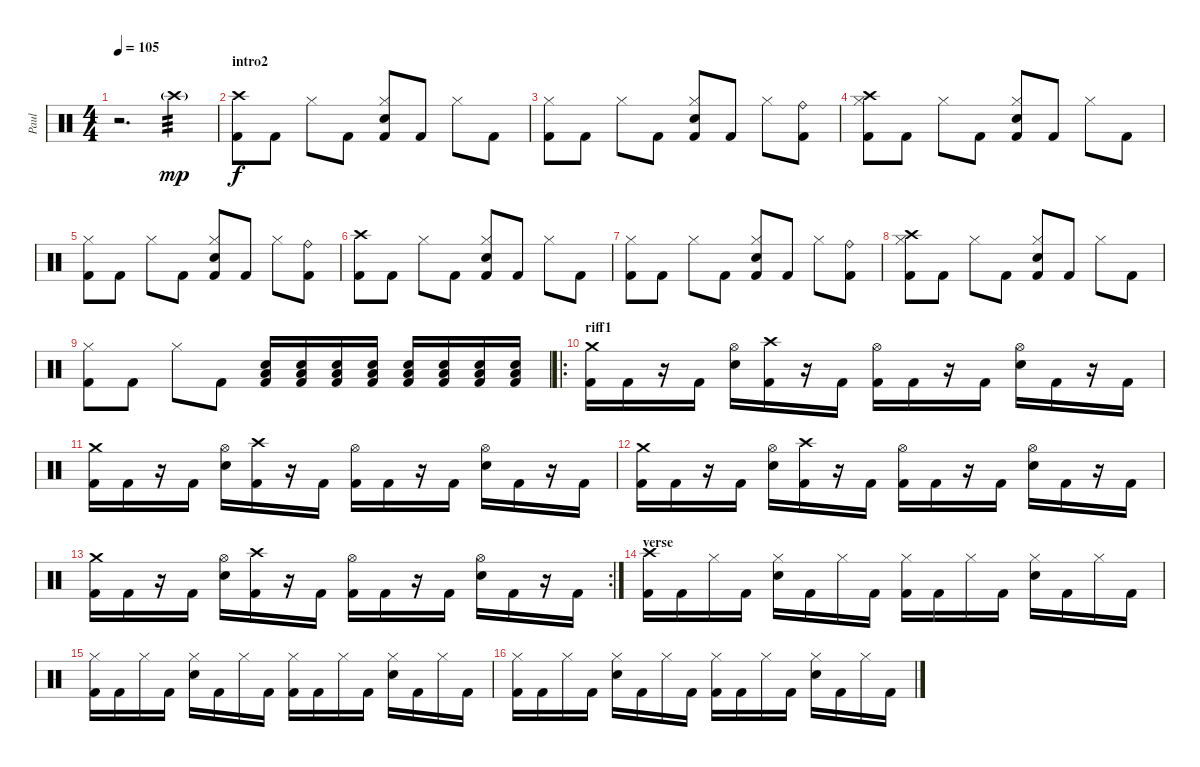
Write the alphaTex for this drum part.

\track ("Paul" "Paul") {instrument percussion}
\staff {score}
\articulation defaults
\ts (4 4)
\tempo 105
\clef neutral
\ks c
r.2{d dy mp volume 0} "Crash high (hit)"{g}.4{tp 3 volume 11} |
\section ("" "intro2")
("Crash high (hit)" "Kick (hit) 2").8{dy f} "Kick (hit) 2".8 "Hi-Hat (closed)".8 "Kick (hit) 2".8 ("Hi-Hat (closed)" "Snare (hit) 2" "Kick (hit) 2").8 "Kick (hit) 2".8 "Hi-Hat (closed)".8 "Kick (hit) 2".8 |
("Hi-Hat (closed)" "Kick (hit) 2").8 "Kick (hit) 2".8 "Hi-Hat (closed)".8 "Kick (hit) 2".8 ("Hi-Hat (closed)" "Snare (hit) 2" "Kick (hit) 2").8 "Kick (hit) 2".8 "Hi-Hat (closed)".8 ("Ride (bell)" "Kick (hit) 2").8 |
("Crash high (hit)" "Hi-Hat (closed)" "Kick (hit) 2").8 "Kick (hit) 2".8 "Hi-Hat (closed)".8 "Kick (hit) 2".8 ("Hi-Hat (closed)" "Snare (hit) 2" "Kick (hit) 2").8 "Kick (hit) 2".8 "Hi-Hat (closed)".8 "Kick (hit) 2".8 |
("Hi-Hat (closed)" "Kick (hit) 2").8 "Kick (hit) 2".8 "Hi-Hat (closed)".8 "Kick (hit) 2".8 ("Hi-Hat (closed)" "Snare (hit) 2" "Kick (hit) 2").8 "Kick (hit) 2".8 "Hi-Hat (closed)".8 ("Ride (bell)" "Kick (hit) 2").8 |
("Crash high (hit)" "Kick (hit) 2").8 "Kick (hit) 2".8 "Hi-Hat (closed)".8 "Kick (hit) 2".8 ("Hi-Hat (closed)" "Snare (hit) 2" "Kick (hit) 2").8 "Kick (hit) 2".8 "Hi-Hat (closed)".8 "Kick (hit) 2".8 |
("Hi-Hat (closed)" "Kick (hit) 2").8 "Kick (hit) 2".8 "Hi-Hat (closed)".8 "Kick (hit) 2".8 ("Hi-Hat (closed)" "Snare (hit) 2" "Kick (hit) 2").8 "Kick (hit) 2".8 "Hi-Hat (closed)".8 ("Ride (bell)" "Kick (hit) 2").8 |
("Crash high (hit)" "Hi-Hat (closed)" "Kick (hit) 2").8 "Kick (hit) 2".8 "Hi-Hat (closed)".8 "Kick (hit) 2".8 ("Hi-Hat (closed)" "Snare (hit) 2" "Kick (hit) 2").8 "Kick (hit) 2".8 "Hi-Hat (closed)".8 "Kick (hit) 2".8 |
("Hi-Hat (closed)" "Kick (hit) 2").8 "Kick (hit) 2".8 "Hi-Hat (closed)".8 "Kick (hit) 2".8 ("Snare (hit) 2" "Low Tom (hit)" "Kick (hit) 2").16 ("Snare (hit) 2" "Low Tom (hit)" "Kick (hit) 2").16 ("Snare (hit) 2" "Low Tom (hit)" "Kick (hit) 2").16 ("Snare (hit) 2" "Low Tom (hit)" "Kick (hit) 2").16 ("Snare (hit) 2" "Low Tom (hit)" "Kick (hit) 2").16 ("Snare (hit) 2" "Low Tom (hit)" "Kick (hit) 2").16 ("Snare (hit) 2" "Low Tom (hit)" "Kick (hit) 2").16 ("Snare (hit) 2" "Low Tom (hit)" "Kick (hit) 2").16 |
\ro
\section ("" "riff1")
("Crash medium (hit)" "Kick (hit) 2").16 "Kick (hit) 2".16 r.16 "Kick (hit) 2".16 ("Hi-Hat (open)" "Snare (hit) 2").16 ("Crash high (hit)" "Kick (hit) 2").16 r.16 "Kick (hit) 2".16 ("Hi-Hat (open)" "Kick (hit) 2").16 "Kick (hit) 2".16 r.16 "Kick (hit) 2".16 ("Hi-Hat (open)" "Snare (hit) 2").16 "Kick (hit) 2".16 r.16 "Kick (hit) 2".16 |
("Crash medium (hit)" "Kick (hit) 2").16 "Kick (hit) 2".16 r.16 "Kick (hit) 2".16 ("Hi-Hat (open)" "Snare (hit) 2").16 ("Crash high (hit)" "Kick (hit) 2").16 r.16 "Kick (hit) 2".16 ("Hi-Hat (open)" "Kick (hit) 2").16 "Kick (hit) 2".16 r.16 "Kick (hit) 2".16 ("Hi-Hat (open)" "Snare (hit) 2").16 "Kick (hit) 2".16 r.16 "Kick (hit) 2".16 |
("Crash medium (hit)" "Kick (hit) 2").16 "Kick (hit) 2".16 r.16 "Kick (hit) 2".16 ("Hi-Hat (open)" "Snare (hit) 2").16 ("Crash high (hit)" "Kick (hit) 2").16 r.16 "Kick (hit) 2".16 ("Hi-Hat (open)" "Kick (hit) 2").16 "Kick (hit) 2".16 r.16 "Kick (hit) 2".16 ("Hi-Hat (open)" "Snare (hit) 2").16 "Kick (hit) 2".16 r.16 "Kick (hit) 2".16 |
\rc 2
("Crash medium (hit)" "Kick (hit) 2").16 "Kick (hit) 2".16 r.16 "Kick (hit) 2".16 ("Hi-Hat (open)" "Snare (hit) 2").16 ("Crash high (hit)" "Kick (hit) 2").16 r.16 "Kick (hit) 2".16 ("Hi-Hat (open)" "Kick (hit) 2").16 "Kick (hit) 2".16 r.16 "Kick (hit) 2".16 ("Hi-Hat (open)" "Snare (hit) 2").16 "Kick (hit) 2".16 r.16 "Kick (hit) 2".16 |
\section ("" "verse")
("Crash high (hit)" "Kick (hit) 2").16 "Kick (hit) 2".16 "Hi-Hat (closed)".16 "Kick (hit) 2".16 ("Hi-Hat (closed)" "Snare (hit) 2").16 "Kick (hit) 2".16 "Hi-Hat (closed)".16 "Kick (hit) 2".16 ("Hi-Hat (closed)" "Kick (hit) 2").16 "Kick (hit) 2".16 "Hi-Hat (closed)".16 "Kick (hit) 2".16 ("Hi-Hat (closed)" "Snare (hit) 2").16 "Kick (hit) 2".16 "Hi-Hat (closed)".16 "Kick (hit) 2".16 |
("Hi-Hat (closed)" "Kick (hit) 2").16 "Kick (hit) 2".16 "Hi-Hat (closed)".16 "Kick (hit) 2".16 ("Hi-Hat (closed)" "Snare (hit) 2").16 "Kick (hit) 2".16 "Hi-Hat (closed)".16 "Kick (hit) 2".16 ("Hi-Hat (closed)" "Kick (hit) 2").16 "Kick (hit) 2".16 "Hi-Hat (closed)".16 "Kick (hit) 2".16 ("Hi-Hat (closed)" "Snare (hit) 2").16 "Kick (hit) 2".16 "Hi-Hat (closed)".16 "Kick (hit) 2".16 |
("Hi-Hat (closed)" "Kick (hit) 2").16 "Kick (hit) 2".16 "Hi-Hat (closed)".16 "Kick (hit) 2".16 ("Hi-Hat (closed)" "Snare (hit) 2").16 "Kick (hit) 2".16 "Hi-Hat (closed)".16 "Kick (hit) 2".16 ("Hi-Hat (closed)" "Kick (hit) 2").16 "Kick (hit) 2".16 "Hi-Hat (closed)".16 "Kick (hit) 2".16 ("Hi-Hat (closed)" "Snare (hit) 2").16 "Kick (hit) 2".16 "Hi-Hat (closed)".16 "Kick (hit) 2".16
